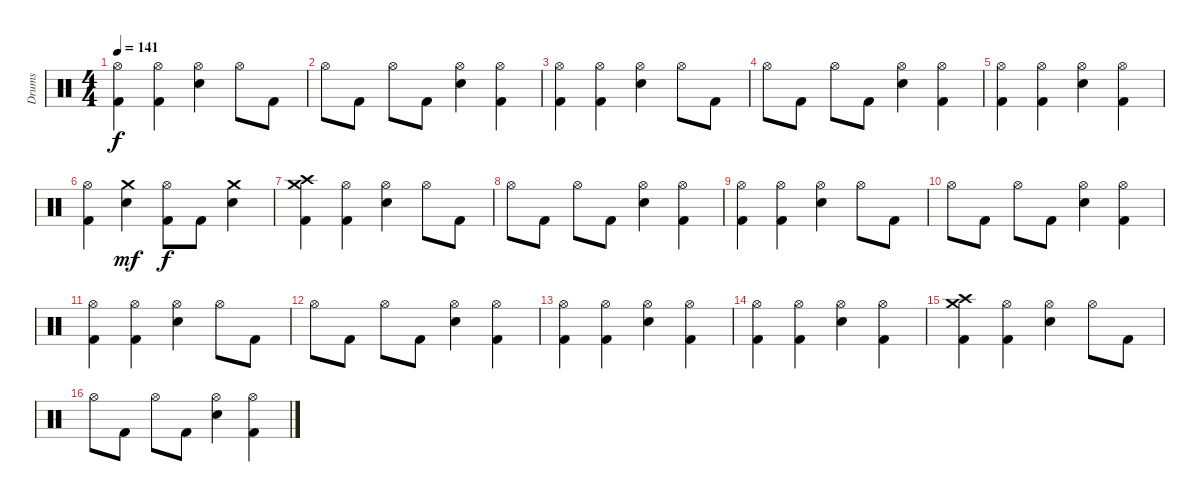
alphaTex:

\track ("Drums" "Drums") {instrument percussion}
\staff {score}
\articulation defaults
\ts (4 4)
\tempo 141
\clef neutral
\ks c
("Hi-Hat (open)" "Kick (hit) 2").4{dy f} ("Hi-Hat (open)" "Kick (hit) 2").4 ("Hi-Hat (open)" "Snare (hit) 2").4 "Hi-Hat (open)".8 "Kick (hit) 2".8 |
"Hi-Hat (open)".8 "Kick (hit) 2".8 "Hi-Hat (open)".8 "Kick (hit) 2".8 ("Hi-Hat (open)" "Snare (hit) 2").4 ("Hi-Hat (open)" "Kick (hit) 2").4 |
("Hi-Hat (open)" "Kick (hit) 2").4 ("Hi-Hat (open)" "Kick (hit) 2").4 ("Hi-Hat (open)" "Snare (hit) 2").4 "Hi-Hat (open)".8 "Kick (hit) 2".8 |
"Hi-Hat (open)".8 "Kick (hit) 2".8 "Hi-Hat (open)".8 "Kick (hit) 2".8 ("Hi-Hat (open)" "Snare (hit) 2").4 ("Hi-Hat (open)" "Kick (hit) 2").4 |
("Hi-Hat (open)" "Kick (hit) 2").4 ("Hi-Hat (open)" "Kick (hit) 2").4 ("Hi-Hat (open)" "Snare (hit) 2").4 ("Hi-Hat (open)" "Kick (hit) 2").4 |
("Hi-Hat (open)" "Kick (hit) 2").4 ("Crash medium (hit)" "Snare (hit) 2").4{dy mf} ("Hi-Hat (open)" "Kick (hit) 2").8{dy f} "Kick (hit) 2".8 ("Crash medium (hit)" "Snare (hit) 2").4 |
("Crash high (hit)" "Crash medium (hit)" "Kick (hit) 2").4 ("Hi-Hat (open)" "Kick (hit) 2").4 ("Hi-Hat (open)" "Snare (hit) 2").4 "Hi-Hat (open)".8 "Kick (hit) 2".8 |
"Hi-Hat (open)".8 "Kick (hit) 2".8 "Hi-Hat (open)".8 "Kick (hit) 2".8 ("Hi-Hat (open)" "Snare (hit) 2").4 ("Hi-Hat (open)" "Kick (hit) 2").4 |
("Hi-Hat (open)" "Kick (hit) 2").4 ("Hi-Hat (open)" "Kick (hit) 2").4 ("Hi-Hat (open)" "Snare (hit) 2").4 "Hi-Hat (open)".8 "Kick (hit) 2".8 |
"Hi-Hat (open)".8 "Kick (hit) 2".8 "Hi-Hat (open)".8 "Kick (hit) 2".8 ("Hi-Hat (open)" "Snare (hit) 2").4 ("Hi-Hat (open)" "Kick (hit) 2").4 |
("Hi-Hat (open)" "Kick (hit) 2").4 ("Hi-Hat (open)" "Kick (hit) 2").4 ("Hi-Hat (open)" "Snare (hit) 2").4 "Hi-Hat (open)".8 "Kick (hit) 2".8 |
"Hi-Hat (open)".8 "Kick (hit) 2".8 "Hi-Hat (open)".8 "Kick (hit) 2".8 ("Hi-Hat (open)" "Snare (hit) 2").4 ("Hi-Hat (open)" "Kick (hit) 2").4 |
("Hi-Hat (open)" "Kick (hit) 2").4 ("Hi-Hat (open)" "Kick (hit) 2").4 ("Hi-Hat (open)" "Snare (hit) 2").4 ("Hi-Hat (open)" "Kick (hit) 2").4 |
("Hi-Hat (open)" "Kick (hit) 2").4 ("Hi-Hat (open)" "Kick (hit) 2").4 ("Hi-Hat (open)" "Snare (hit) 2").4 ("Hi-Hat (open)" "Kick (hit) 2").4 |
("Crash high (hit)" "Crash medium (hit)" "Kick (hit) 2").4 ("Hi-Hat (open)" "Kick (hit) 2").4 ("Hi-Hat (open)" "Snare (hit) 2").4 "Hi-Hat (open)".8 "Kick (hit) 2".8 |
"Hi-Hat (open)".8 "Kick (hit) 2".8 "Hi-Hat (open)".8 "Kick (hit) 2".8 ("Hi-Hat (open)" "Snare (hit) 2").4 ("Hi-Hat (open)" "Kick (hit) 2").4
